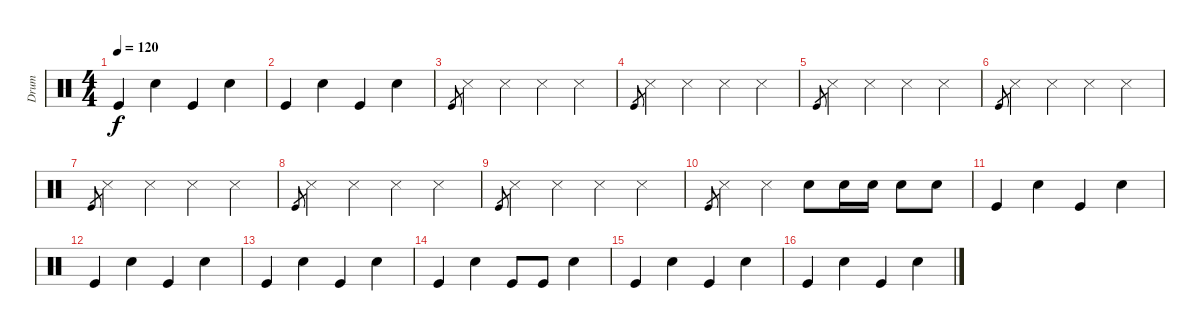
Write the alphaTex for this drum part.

\track ("Drum" "Drum") {instrument percussion}
\staff {score}
\articulation defaults
\ts (4 4)
\tempo 120
\clef neutral
\ks c "Kick (hit)".4{dy f} "Snare (hit) 2".4 "Kick (hit)".4 "Snare (hit) 2".4
|
"Kick (hit)".4 "Snare (hit) 2".4 "Kick (hit)".4 "Snare (hit) 2".4 |
"Kick (hit)".8{gr} "Metronome (hit)".4 "Metronome (hit)".4 "Metronome (hit)".4 "Metronome (hit)".4 |
"Kick (hit)".8{gr} "Metronome (hit)".4 "Metronome (hit)".4 "Metronome (hit)".4 "Metronome (hit)".4 |
"Kick (hit)".8{gr} "Metronome (hit)".4 "Metronome (hit)".4 "Metronome (hit)".4 "Metronome (hit)".4 |
"Kick (hit)".8{gr} "Metronome (hit)".4 "Metronome (hit)".4 "Metronome (hit)".4 "Metronome (hit)".4 |
"Kick (hit)".8{gr} "Metronome (hit)".4 "Metronome (hit)".4 "Metronome (hit)".4 "Metronome (hit)".4 |
"Kick (hit)".8{gr} "Metronome (hit)".4 "Metronome (hit)".4 "Metronome (hit)".4 "Metronome (hit)".4 |
"Kick (hit)".8{gr} "Metronome (hit)".4 "Metronome (hit)".4 "Metronome (hit)".4 "Metronome (hit)".4 |
"Kick (hit)".8{gr} "Metronome (hit)".4 "Metronome (hit)".4 "Snare (hit) 2".8 "Snare (hit) 2".16 "Snare (hit) 2".16 "Snare (hit) 2".8 "Snare (hit) 2".8 |
"Kick (hit)".4 "Snare (hit) 2".4 "Kick (hit)".4 "Snare (hit) 2".4 |
"Kick (hit)".4 "Snare (hit) 2".4 "Kick (hit)".4 "Snare (hit) 2".4 |
"Kick (hit)".4 "Snare (hit) 2".4 "Kick (hit)".4 "Snare (hit) 2".4 |
"Kick (hit)".4 "Snare (hit) 2".4 "Kick (hit)".8 "Kick (hit)".8 "Snare (hit) 2".4 |
"Kick (hit)".4 "Snare (hit) 2".4 "Kick (hit)".4 "Snare (hit) 2".4 |
"Kick (hit)".4 "Snare (hit) 2".4 "Kick (hit)".4 "Snare (hit) 2".4
